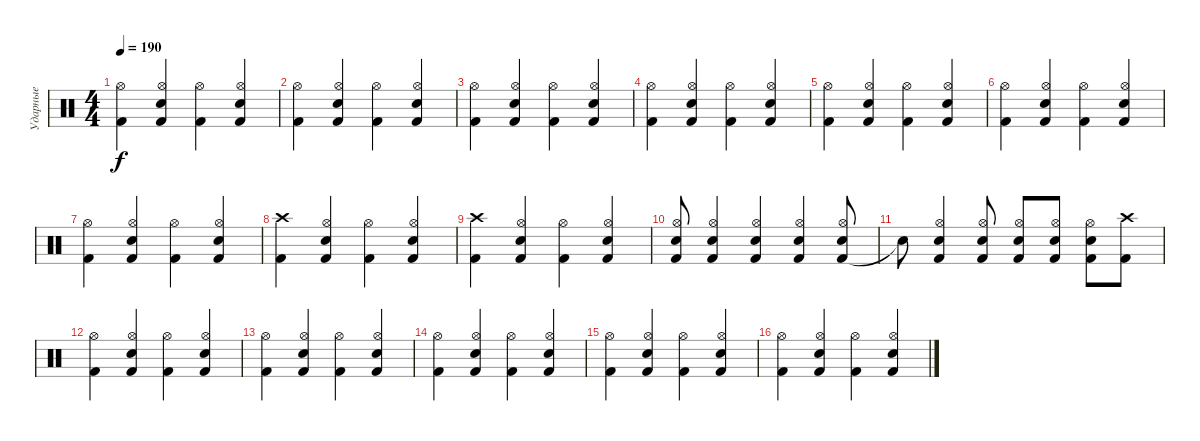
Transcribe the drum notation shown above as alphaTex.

\track ("Ударные" "Ударные") {instrument percussion}
\staff
\articulation defaults
\ts (4 4)
\tempo 190
\clef neutral
\ks c
("Kick (hit) 2" "Hi-Hat (open)").4{dy f} ("Kick (hit) 2" "Snare (hit) 2" "Hi-Hat (open)").4 ("Kick (hit) 2" "Hi-Hat (open)").4 ("Kick (hit) 2" "Snare (hit) 2" "Hi-Hat (open)").4 |
("Kick (hit) 2" "Hi-Hat (open)").4 ("Kick (hit) 2" "Snare (hit) 2" "Hi-Hat (open)").4 ("Kick (hit) 2" "Hi-Hat (open)").4 ("Kick (hit) 2" "Snare (hit) 2" "Hi-Hat (open)").4 |
("Kick (hit) 2" "Hi-Hat (open)").4 ("Kick (hit) 2" "Snare (hit) 2" "Hi-Hat (open)").4 ("Kick (hit) 2" "Hi-Hat (open)").4 ("Kick (hit) 2" "Snare (hit) 2" "Hi-Hat (open)").4 |
("Kick (hit) 2" "Hi-Hat (open)").4 ("Kick (hit) 2" "Snare (hit) 2" "Hi-Hat (open)").4 ("Kick (hit) 2" "Hi-Hat (open)").4 ("Kick (hit) 2" "Snare (hit) 2" "Hi-Hat (open)").4 |
("Kick (hit) 2" "Hi-Hat (open)").4 ("Kick (hit) 2" "Snare (hit) 2" "Hi-Hat (open)").4 ("Kick (hit) 2" "Hi-Hat (open)").4 ("Kick (hit) 2" "Snare (hit) 2" "Hi-Hat (open)").4 |
("Kick (hit) 2" "Hi-Hat (open)").4 ("Kick (hit) 2" "Snare (hit) 2" "Hi-Hat (open)").4 ("Kick (hit) 2" "Hi-Hat (open)").4 ("Kick (hit) 2" "Snare (hit) 2" "Hi-Hat (open)").4 |
("Kick (hit) 2" "Hi-Hat (open)").4 ("Kick (hit) 2" "Snare (hit) 2" "Hi-Hat (open)").4 ("Kick (hit) 2" "Hi-Hat (open)").4 ("Kick (hit) 2" "Snare (hit) 2" "Hi-Hat (open)").4 |
("Kick (hit) 2" "Crash high (hit)").4 ("Kick (hit) 2" "Snare (hit) 2" "Hi-Hat (open)").4 ("Kick (hit) 2" "Hi-Hat (open)").4 ("Kick (hit) 2" "Snare (hit) 2" "Hi-Hat (open)").4 |
("Kick (hit) 2" "Crash high (hit)").4 ("Kick (hit) 2" "Snare (hit) 2" "Hi-Hat (open)").4 ("Kick (hit) 2" "Hi-Hat (open)").4 ("Kick (hit) 2" "Snare (hit) 2" "Hi-Hat (open)").4 |
("Kick (hit) 2" "Snare (hit) 2" "Hi-Hat (open)").8 ("Kick (hit) 2" "Snare (hit) 2" "Hi-Hat (open)").4 ("Kick (hit) 2" "Snare (hit) 2" "Hi-Hat (open)").4 ("Kick (hit) 2" "Snare (hit) 2" "Hi-Hat (open)").4 ("Kick (hit) 2" "Snare (hit) 2" "Hi-Hat (open)").8 |
"Snare (hit)"{t}.8 ("Kick (hit) 2" "Snare (hit) 2" "Hi-Hat (open)").4 ("Kick (hit) 2" "Snare (hit) 2" "Hi-Hat (open)").8 ("Kick (hit) 2" "Snare (hit) 2" "Hi-Hat (open)").8 ("Kick (hit) 2" "Snare (hit) 2" "Hi-Hat (open)").8 ("Kick (hit) 2" "Snare (hit) 2" "Hi-Hat (open)").8 ("Kick (hit) 2" "Crash high (hit)").8 |
("Kick (hit) 2" "Hi-Hat (open)").4 ("Kick (hit) 2" "Snare (hit) 2" "Hi-Hat (open)").4 ("Kick (hit) 2" "Hi-Hat (open)").4 ("Kick (hit) 2" "Snare (hit) 2" "Hi-Hat (open)").4 |
("Kick (hit) 2" "Hi-Hat (open)").4 ("Kick (hit) 2" "Snare (hit) 2" "Hi-Hat (open)").4 ("Kick (hit) 2" "Hi-Hat (open)").4 ("Kick (hit) 2" "Snare (hit) 2" "Hi-Hat (open)").4 |
("Kick (hit) 2" "Hi-Hat (open)").4 ("Kick (hit) 2" "Snare (hit) 2" "Hi-Hat (open)").4 ("Kick (hit) 2" "Hi-Hat (open)").4 ("Kick (hit) 2" "Snare (hit) 2" "Hi-Hat (open)").4 |
("Kick (hit) 2" "Hi-Hat (open)").4 ("Kick (hit) 2" "Snare (hit) 2" "Hi-Hat (open)").4 ("Kick (hit) 2" "Hi-Hat (open)").4 ("Kick (hit) 2" "Snare (hit) 2" "Hi-Hat (open)").4 |
("Kick (hit) 2" "Hi-Hat (open)").4 ("Kick (hit) 2" "Snare (hit) 2" "Hi-Hat (open)").4 ("Kick (hit) 2" "Hi-Hat (open)").4 ("Kick (hit) 2" "Snare (hit) 2" "Hi-Hat (open)").4
